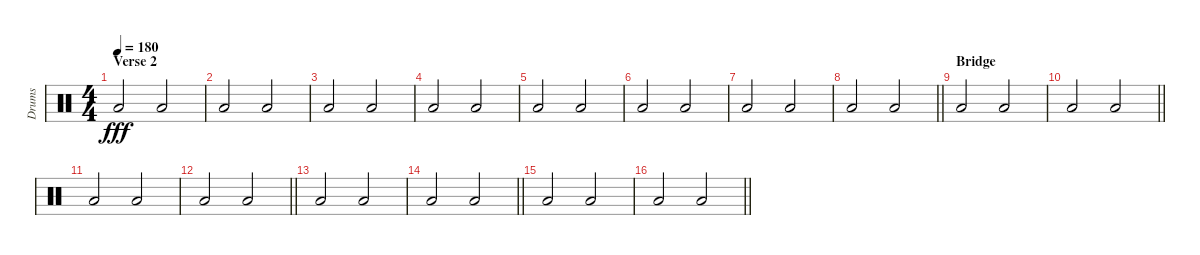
\track ("Drums" "Drums") {instrument percussion}
\staff {score}
\articulation defaults
\ts (4 4)
\section ("" "Verse 2")
\tempo 180
\clef neutral
\ks c "Low Floor Tom (hit)".2{dy fff} "Low Floor Tom (hit)".2
|
"Low Floor Tom (hit)".2 "Low Floor Tom (hit)".2 |
"Low Floor Tom (hit)".2 "Low Floor Tom (hit)".2 |
"Low Floor Tom (hit)".2 "Low Floor Tom (hit)".2 |
"Low Floor Tom (hit)".2 "Low Floor Tom (hit)".2 |
"Low Floor Tom (hit)".2 "Low Floor Tom (hit)".2 |
"Low Floor Tom (hit)".2 "Low Floor Tom (hit)".2 |
\barLineRight lightlight "Low Floor Tom (hit)".2 "Low Floor Tom (hit)".2
|
\section ("" "Bridge")
"Low Floor Tom (hit)".2 "Low Floor Tom (hit)".2 |
\barLineRight lightlight "Low Floor Tom (hit)".2 "Low Floor Tom (hit)".2
|
"Low Floor Tom (hit)".2 "Low Floor Tom (hit)".2 |
\barLineRight lightlight "Low Floor Tom (hit)".2 "Low Floor Tom (hit)".2
|
"Low Floor Tom (hit)".2 "Low Floor Tom (hit)".2 |
\barLineRight lightlight "Low Floor Tom (hit)".2 "Low Floor Tom (hit)".2
|
"Low Floor Tom (hit)".2 "Low Floor Tom (hit)".2 |
\barLineRight lightlight "Low Floor Tom (hit)".2 "Low Floor Tom (hit)".2
